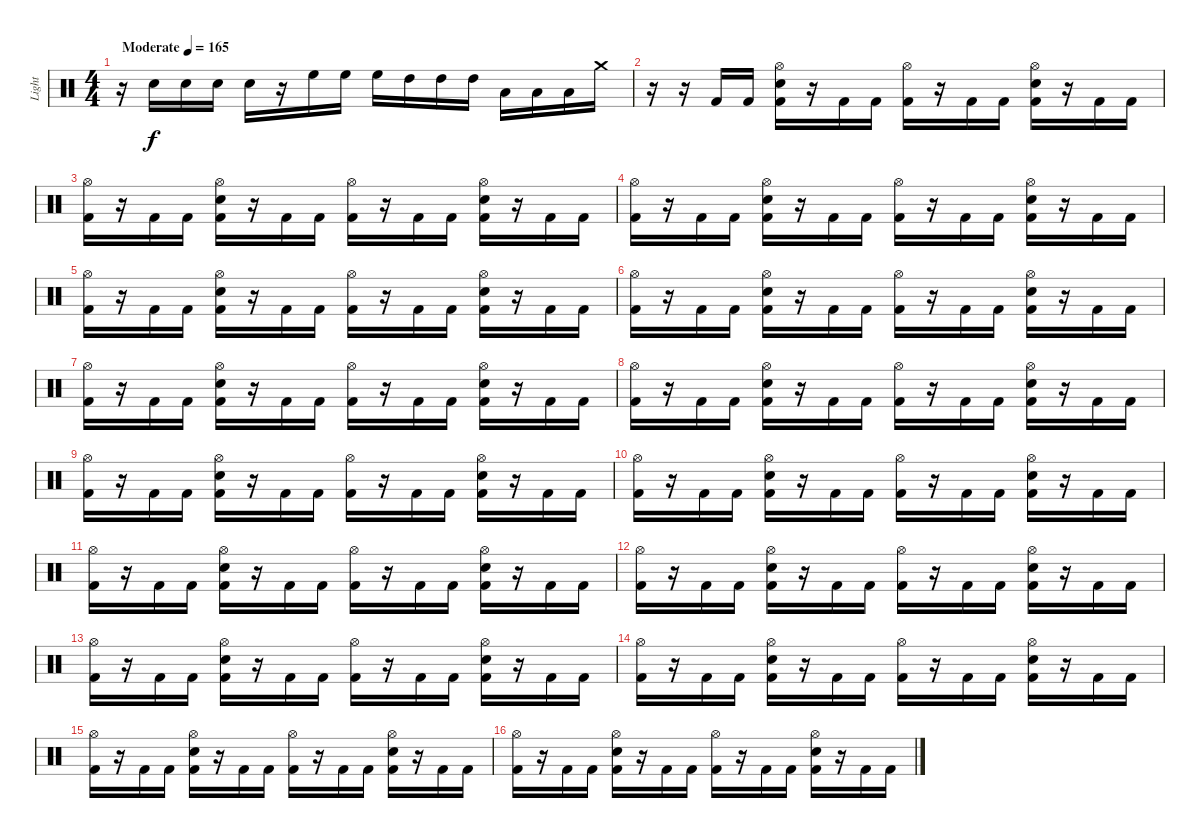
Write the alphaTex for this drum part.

\track ("Light" "Light") {instrument percussion}
\staff {score}
\articulation defaults
\ts (4 4)
\tempo (165 "Moderate")
\clef neutral
\ks c
r.16{dy f} "Electric Snare (hit)".16 "Electric Snare (hit)".16 "Electric Snare (hit)".16 "Electric Snare (hit)".16 r.16 "High Floor Tom (hit)".16 "High Floor Tom (hit)".16 "High Floor Tom (hit)".16 "High Tom (hit)".16 "High Tom (hit)".16 "High Tom (hit)".16 "Low Tom (hit)".16 "Low Tom (hit)".16 "Low Tom (hit)".16 "Crash medium (hit)".16 |
r.16 r.16 "Kick (hit) 2".16 "Kick (hit) 2".16 ("Hi-Hat (open)" "Electric Snare (hit)" "Kick (hit) 2").16 r.16 "Kick (hit) 2".16 "Kick (hit) 2".16 ("Hi-Hat (open)" "Kick (hit) 2").16 r.16 "Kick (hit) 2".16 "Kick (hit) 2".16 ("Hi-Hat (open)" "Electric Snare (hit)" "Kick (hit) 2").16 r.16 "Kick (hit) 2".16 "Kick (hit) 2".16 |
("Hi-Hat (open)" "Kick (hit) 2").16 r.16 "Kick (hit) 2".16 "Kick (hit) 2".16 ("Hi-Hat (open)" "Electric Snare (hit)" "Kick (hit) 2").16 r.16 "Kick (hit) 2".16 "Kick (hit) 2".16 ("Hi-Hat (open)" "Kick (hit) 2").16 r.16 "Kick (hit) 2".16 "Kick (hit) 2".16 ("Hi-Hat (open)" "Electric Snare (hit)" "Kick (hit) 2").16 r.16 "Kick (hit) 2".16 "Kick (hit) 2".16 |
("Hi-Hat (open)" "Kick (hit) 2").16 r.16 "Kick (hit) 2".16 "Kick (hit) 2".16 ("Hi-Hat (open)" "Electric Snare (hit)" "Kick (hit) 2").16 r.16 "Kick (hit) 2".16 "Kick (hit) 2".16 ("Hi-Hat (open)" "Kick (hit) 2").16 r.16 "Kick (hit) 2".16 "Kick (hit) 2".16 ("Hi-Hat (open)" "Electric Snare (hit)" "Kick (hit) 2").16 r.16 "Kick (hit) 2".16 "Kick (hit) 2".16 |
("Hi-Hat (open)" "Kick (hit) 2").16 r.16 "Kick (hit) 2".16 "Kick (hit) 2".16 ("Hi-Hat (open)" "Electric Snare (hit)" "Kick (hit) 2").16 r.16 "Kick (hit) 2".16 "Kick (hit) 2".16 ("Hi-Hat (open)" "Kick (hit) 2").16 r.16 "Kick (hit) 2".16 "Kick (hit) 2".16 ("Hi-Hat (open)" "Electric Snare (hit)" "Kick (hit) 2").16 r.16 "Kick (hit) 2".16 "Kick (hit) 2".16 |
("Hi-Hat (open)" "Kick (hit) 2").16 r.16 "Kick (hit) 2".16 "Kick (hit) 2".16 ("Hi-Hat (open)" "Electric Snare (hit)" "Kick (hit) 2").16 r.16 "Kick (hit) 2".16 "Kick (hit) 2".16 ("Hi-Hat (open)" "Kick (hit) 2").16 r.16 "Kick (hit) 2".16 "Kick (hit) 2".16 ("Hi-Hat (open)" "Electric Snare (hit)" "Kick (hit) 2").16 r.16 "Kick (hit) 2".16 "Kick (hit) 2".16 |
("Hi-Hat (open)" "Kick (hit) 2").16 r.16 "Kick (hit) 2".16 "Kick (hit) 2".16 ("Hi-Hat (open)" "Electric Snare (hit)" "Kick (hit) 2").16 r.16 "Kick (hit) 2".16 "Kick (hit) 2".16 ("Hi-Hat (open)" "Kick (hit) 2").16 r.16 "Kick (hit) 2".16 "Kick (hit) 2".16 ("Hi-Hat (open)" "Electric Snare (hit)" "Kick (hit) 2").16 r.16 "Kick (hit) 2".16 "Kick (hit) 2".16 |
("Hi-Hat (open)" "Kick (hit) 2").16 r.16 "Kick (hit) 2".16 "Kick (hit) 2".16 ("Hi-Hat (open)" "Electric Snare (hit)" "Kick (hit) 2").16 r.16 "Kick (hit) 2".16 "Kick (hit) 2".16 ("Hi-Hat (open)" "Kick (hit) 2").16 r.16 "Kick (hit) 2".16 "Kick (hit) 2".16 ("Hi-Hat (open)" "Electric Snare (hit)" "Kick (hit) 2").16 r.16 "Kick (hit) 2".16 "Kick (hit) 2".16 |
("Hi-Hat (open)" "Kick (hit) 2").16 r.16 "Kick (hit) 2".16 "Kick (hit) 2".16 ("Hi-Hat (open)" "Electric Snare (hit)" "Kick (hit) 2").16 r.16 "Kick (hit) 2".16 "Kick (hit) 2".16 ("Hi-Hat (open)" "Kick (hit) 2").16 r.16 "Kick (hit) 2".16 "Kick (hit) 2".16 ("Hi-Hat (open)" "Electric Snare (hit)" "Kick (hit) 2").16 r.16 "Kick (hit) 2".16 "Kick (hit) 2".16 |
("Hi-Hat (open)" "Kick (hit) 2").16 r.16 "Kick (hit) 2".16 "Kick (hit) 2".16 ("Hi-Hat (open)" "Electric Snare (hit)" "Kick (hit) 2").16 r.16 "Kick (hit) 2".16 "Kick (hit) 2".16 ("Hi-Hat (open)" "Kick (hit) 2").16 r.16 "Kick (hit) 2".16 "Kick (hit) 2".16 ("Hi-Hat (open)" "Electric Snare (hit)" "Kick (hit) 2").16 r.16 "Kick (hit) 2".16 "Kick (hit) 2".16 |
("Hi-Hat (open)" "Kick (hit) 2").16 r.16 "Kick (hit) 2".16 "Kick (hit) 2".16 ("Hi-Hat (open)" "Electric Snare (hit)" "Kick (hit) 2").16 r.16 "Kick (hit) 2".16 "Kick (hit) 2".16 ("Hi-Hat (open)" "Kick (hit) 2").16 r.16 "Kick (hit) 2".16 "Kick (hit) 2".16 ("Hi-Hat (open)" "Electric Snare (hit)" "Kick (hit) 2").16 r.16 "Kick (hit) 2".16 "Kick (hit) 2".16 |
("Hi-Hat (open)" "Kick (hit) 2").16 r.16 "Kick (hit) 2".16 "Kick (hit) 2".16 ("Hi-Hat (open)" "Electric Snare (hit)" "Kick (hit) 2").16 r.16 "Kick (hit) 2".16 "Kick (hit) 2".16 ("Hi-Hat (open)" "Kick (hit) 2").16 r.16 "Kick (hit) 2".16 "Kick (hit) 2".16 ("Hi-Hat (open)" "Electric Snare (hit)" "Kick (hit) 2").16 r.16 "Kick (hit) 2".16 "Kick (hit) 2".16 |
("Hi-Hat (open)" "Kick (hit) 2").16 r.16 "Kick (hit) 2".16 "Kick (hit) 2".16 ("Hi-Hat (open)" "Electric Snare (hit)" "Kick (hit) 2").16 r.16 "Kick (hit) 2".16 "Kick (hit) 2".16 ("Hi-Hat (open)" "Kick (hit) 2").16 r.16 "Kick (hit) 2".16 "Kick (hit) 2".16 ("Hi-Hat (open)" "Electric Snare (hit)" "Kick (hit) 2").16 r.16 "Kick (hit) 2".16 "Kick (hit) 2".16 |
("Hi-Hat (open)" "Kick (hit) 2").16 r.16 "Kick (hit) 2".16 "Kick (hit) 2".16 ("Hi-Hat (open)" "Electric Snare (hit)" "Kick (hit) 2").16 r.16 "Kick (hit) 2".16 "Kick (hit) 2".16 ("Hi-Hat (open)" "Kick (hit) 2").16 r.16 "Kick (hit) 2".16 "Kick (hit) 2".16 ("Hi-Hat (open)" "Electric Snare (hit)" "Kick (hit) 2").16 r.16 "Kick (hit) 2".16 "Kick (hit) 2".16 |
("Hi-Hat (open)" "Kick (hit) 2").16 r.16 "Kick (hit) 2".16 "Kick (hit) 2".16 ("Hi-Hat (open)" "Electric Snare (hit)" "Kick (hit) 2").16 r.16 "Kick (hit) 2".16 "Kick (hit) 2".16 ("Hi-Hat (open)" "Kick (hit) 2").16 r.16 "Kick (hit) 2".16 "Kick (hit) 2".16 ("Hi-Hat (open)" "Electric Snare (hit)" "Kick (hit) 2").16 r.16 "Kick (hit) 2".16 "Kick (hit) 2".16 |
("Hi-Hat (open)" "Kick (hit) 2").16 r.16 "Kick (hit) 2".16 "Kick (hit) 2".16 ("Hi-Hat (open)" "Electric Snare (hit)" "Kick (hit) 2").16 r.16 "Kick (hit) 2".16 "Kick (hit) 2".16 ("Hi-Hat (open)" "Kick (hit) 2").16 r.16 "Kick (hit) 2".16 "Kick (hit) 2".16 ("Hi-Hat (open)" "Electric Snare (hit)" "Kick (hit) 2").16 r.16 "Kick (hit) 2".16 "Kick (hit) 2".16
